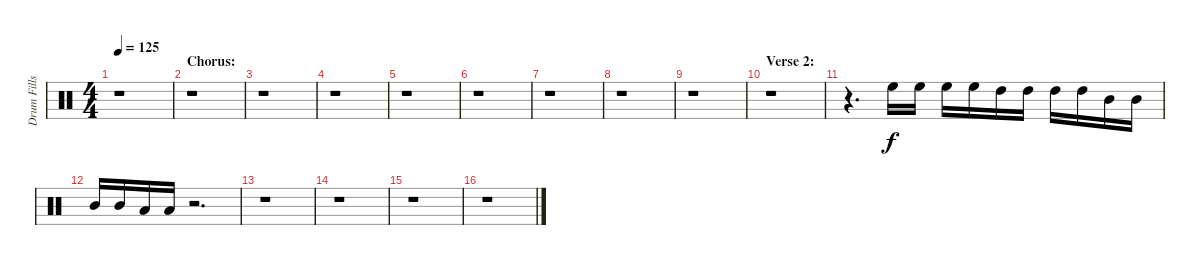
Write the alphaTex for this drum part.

\track ("Drum Fills" "Drum Fills") {instrument percussion}
\staff {score}
\articulation defaults
\ts (4 4)
\tempo 125
\clef neutral
\ks c
r.1{dy f} |
\section ("" "Chorus:")
r.1 |
r.1 |
r.1 |
r.1 |
r.1 |
r.1 |
r.1 |
r.1 |
\section ("" "Verse 2:")
r.1 |
r.4{d} "High Floor Tom (hit)".16 "High Floor Tom (hit)".16 "High Floor Tom (hit)".16 "High Floor Tom (hit)".16 "High Tom (hit)".16 "High Tom (hit)".16 "High Tom (hit)".16 "High Tom (hit)".16 "Mid Tom (hit)".16 "Mid Tom (hit)".16 |
"Mid Tom (hit)".16 "Mid Tom (hit)".16 "Low Tom (hit)".16 "Low Tom (hit)".16 r.2{d} |
r.1 |
r.1 |
r.1 |
r.1
